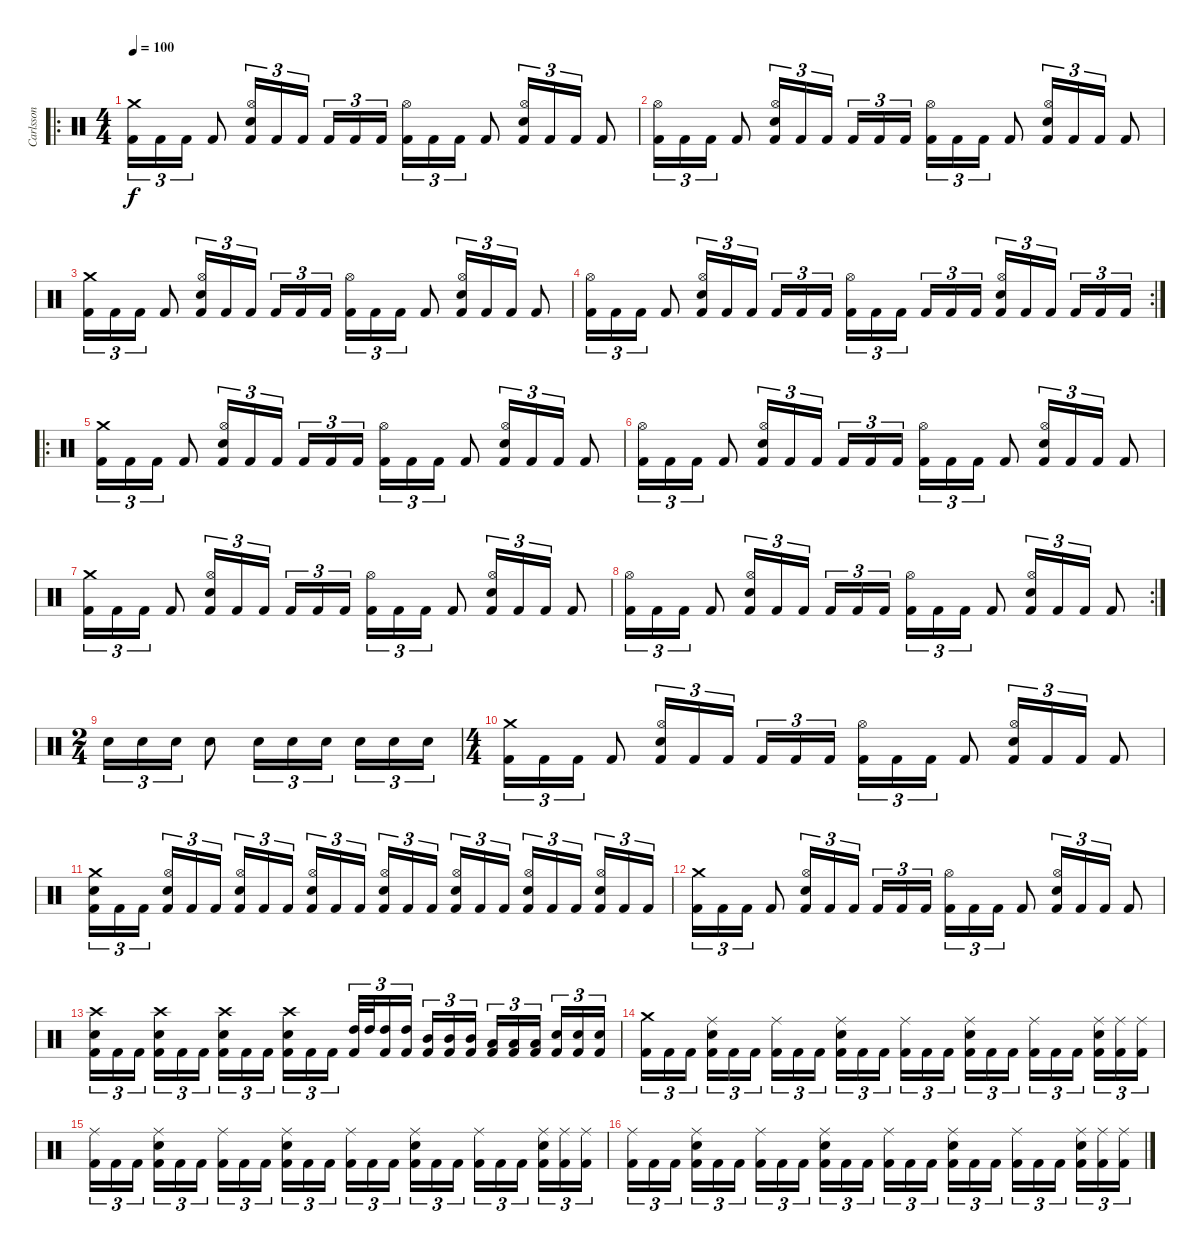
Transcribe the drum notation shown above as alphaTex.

\track ("Carlsson" "Carlsson") {instrument percussion}
\staff {score}
\articulation defaults
\ro
\ts (4 4)
\tempo 100
\clef neutral
\ks c
("Crash medium (hit)" "Kick (hit) 2").16{tu (3 2) dy f} "Kick (hit) 2".16{tu (3 2)} "Kick (hit) 2".16{tu (3 2)} "Kick (hit) 2".8 ("Hi-Hat (open)" "Electric Snare (hit)" "Kick (hit) 2").16{tu (3 2)} "Kick (hit) 2".16{tu (3 2)} "Kick (hit) 2".16{tu (3 2)} "Kick (hit) 2".16{tu (3 2)} "Kick (hit) 2".16{tu (3 2)} "Kick (hit) 2".16{tu (3 2)} ("Hi-Hat (open)" "Kick (hit) 2").16{tu (3 2)} "Kick (hit) 2".16{tu (3 2)} "Kick (hit) 2".16{tu (3 2)} "Kick (hit) 2".8 ("Hi-Hat (open)" "Electric Snare (hit)" "Kick (hit) 2").16{tu (3 2)} "Kick (hit) 2".16{tu (3 2)} "Kick (hit) 2".16{tu (3 2)} "Kick (hit) 2".8 |
("Hi-Hat (open)" "Kick (hit) 2").16{tu (3 2)} "Kick (hit) 2".16{tu (3 2)} "Kick (hit) 2".16{tu (3 2)} "Kick (hit) 2".8 ("Hi-Hat (open)" "Electric Snare (hit)" "Kick (hit) 2").16{tu (3 2)} "Kick (hit) 2".16{tu (3 2)} "Kick (hit) 2".16{tu (3 2)} "Kick (hit) 2".16{tu (3 2)} "Kick (hit) 2".16{tu (3 2)} "Kick (hit) 2".16{tu (3 2)} ("Hi-Hat (open)" "Kick (hit) 2").16{tu (3 2)} "Kick (hit) 2".16{tu (3 2)} "Kick (hit) 2".16{tu (3 2)} "Kick (hit) 2".8 ("Hi-Hat (open)" "Electric Snare (hit)" "Kick (hit) 2").16{tu (3 2)} "Kick (hit) 2".16{tu (3 2)} "Kick (hit) 2".16{tu (3 2)} "Kick (hit) 2".8 |
("Crash medium (hit)" "Kick (hit) 2").16{tu (3 2)} "Kick (hit) 2".16{tu (3 2)} "Kick (hit) 2".16{tu (3 2)} "Kick (hit) 2".8 ("Hi-Hat (open)" "Electric Snare (hit)" "Kick (hit) 2").16{tu (3 2)} "Kick (hit) 2".16{tu (3 2)} "Kick (hit) 2".16{tu (3 2)} "Kick (hit) 2".16{tu (3 2)} "Kick (hit) 2".16{tu (3 2)} "Kick (hit) 2".16{tu (3 2)} ("Hi-Hat (open)" "Kick (hit) 2").16{tu (3 2)} "Kick (hit) 2".16{tu (3 2)} "Kick (hit) 2".16{tu (3 2)} "Kick (hit) 2".8 ("Hi-Hat (open)" "Electric Snare (hit)" "Kick (hit) 2").16{tu (3 2)} "Kick (hit) 2".16{tu (3 2)} "Kick (hit) 2".16{tu (3 2)} "Kick (hit) 2".8 |
\rc 2
("Hi-Hat (open)" "Kick (hit) 2").16{tu (3 2)} "Kick (hit) 2".16{tu (3 2)} "Kick (hit) 2".16{tu (3 2)} "Kick (hit) 2".8 ("Hi-Hat (open)" "Electric Snare (hit)" "Kick (hit) 2").16{tu (3 2)} "Kick (hit) 2".16{tu (3 2)} "Kick (hit) 2".16{tu (3 2)} "Kick (hit) 2".16{tu (3 2)} "Kick (hit) 2".16{tu (3 2)} "Kick (hit) 2".16{tu (3 2)} ("Hi-Hat (open)" "Kick (hit) 2").16{tu (3 2)} "Kick (hit) 2".16{tu (3 2)} "Kick (hit) 2".16{tu (3 2)} "Kick (hit) 2".16{tu (3 2)} "Kick (hit) 2".16{tu (3 2)} "Kick (hit) 2".16{tu (3 2)} ("Hi-Hat (open)" "Electric Snare (hit)" "Kick (hit) 2").16{tu (3 2)} "Kick (hit) 2".16{tu (3 2)} "Kick (hit) 2".16{tu (3 2)} "Kick (hit) 2".16{tu (3 2)} "Kick (hit) 2".16{tu (3 2)} "Kick (hit) 2".16{tu (3 2)} |
\ro
("Crash medium (hit)" "Kick (hit) 2").16{tu (3 2)} "Kick (hit) 2".16{tu (3 2)} "Kick (hit) 2".16{tu (3 2)} "Kick (hit) 2".8 ("Hi-Hat (open)" "Electric Snare (hit)" "Kick (hit) 2").16{tu (3 2)} "Kick (hit) 2".16{tu (3 2)} "Kick (hit) 2".16{tu (3 2)} "Kick (hit) 2".16{tu (3 2)} "Kick (hit) 2".16{tu (3 2)} "Kick (hit) 2".16{tu (3 2)} ("Hi-Hat (open)" "Kick (hit) 2").16{tu (3 2)} "Kick (hit) 2".16{tu (3 2)} "Kick (hit) 2".16{tu (3 2)} "Kick (hit) 2".8 ("Hi-Hat (open)" "Electric Snare (hit)" "Kick (hit) 2").16{tu (3 2)} "Kick (hit) 2".16{tu (3 2)} "Kick (hit) 2".16{tu (3 2)} "Kick (hit) 2".8 |
("Hi-Hat (open)" "Kick (hit) 2").16{tu (3 2)} "Kick (hit) 2".16{tu (3 2)} "Kick (hit) 2".16{tu (3 2)} "Kick (hit) 2".8 ("Hi-Hat (open)" "Electric Snare (hit)" "Kick (hit) 2").16{tu (3 2)} "Kick (hit) 2".16{tu (3 2)} "Kick (hit) 2".16{tu (3 2)} "Kick (hit) 2".16{tu (3 2)} "Kick (hit) 2".16{tu (3 2)} "Kick (hit) 2".16{tu (3 2)} ("Hi-Hat (open)" "Kick (hit) 2").16{tu (3 2)} "Kick (hit) 2".16{tu (3 2)} "Kick (hit) 2".16{tu (3 2)} "Kick (hit) 2".8 ("Hi-Hat (open)" "Electric Snare (hit)" "Kick (hit) 2").16{tu (3 2)} "Kick (hit) 2".16{tu (3 2)} "Kick (hit) 2".16{tu (3 2)} "Kick (hit) 2".8 |
("Crash medium (hit)" "Kick (hit) 2").16{tu (3 2)} "Kick (hit) 2".16{tu (3 2)} "Kick (hit) 2".16{tu (3 2)} "Kick (hit) 2".8 ("Hi-Hat (open)" "Electric Snare (hit)" "Kick (hit) 2").16{tu (3 2)} "Kick (hit) 2".16{tu (3 2)} "Kick (hit) 2".16{tu (3 2)} "Kick (hit) 2".16{tu (3 2)} "Kick (hit) 2".16{tu (3 2)} "Kick (hit) 2".16{tu (3 2)} ("Hi-Hat (open)" "Kick (hit) 2").16{tu (3 2)} "Kick (hit) 2".16{tu (3 2)} "Kick (hit) 2".16{tu (3 2)} "Kick (hit) 2".8 ("Hi-Hat (open)" "Electric Snare (hit)" "Kick (hit) 2").16{tu (3 2)} "Kick (hit) 2".16{tu (3 2)} "Kick (hit) 2".16{tu (3 2)} "Kick (hit) 2".8 |
\rc 2
("Hi-Hat (open)" "Kick (hit) 2").16{tu (3 2)} "Kick (hit) 2".16{tu (3 2)} "Kick (hit) 2".16{tu (3 2)} "Kick (hit) 2".8 ("Hi-Hat (open)" "Electric Snare (hit)" "Kick (hit) 2").16{tu (3 2)} "Kick (hit) 2".16{tu (3 2)} "Kick (hit) 2".16{tu (3 2)} "Kick (hit) 2".16{tu (3 2)} "Kick (hit) 2".16{tu (3 2)} "Kick (hit) 2".16{tu (3 2)} ("Hi-Hat (open)" "Kick (hit) 2").16{tu (3 2)} "Kick (hit) 2".16{tu (3 2)} "Kick (hit) 2".16{tu (3 2)} "Kick (hit) 2".8 ("Hi-Hat (open)" "Electric Snare (hit)" "Kick (hit) 2").16{tu (3 2)} "Kick (hit) 2".16{tu (3 2)} "Kick (hit) 2".16{tu (3 2)} "Kick (hit) 2".8 |
\ts (2 4)
"Electric Snare (hit)".16{tu (3 2)} "Electric Snare (hit)".16{tu (3 2)} "Electric Snare (hit)".16{tu (3 2)} "Electric Snare (hit)".8 "Electric Snare (hit)".16{tu (3 2)} "Electric Snare (hit)".16{tu (3 2)} "Electric Snare (hit)".16{tu (3 2)} "Electric Snare (hit)".16{tu (3 2)} "Electric Snare (hit)".16{tu (3 2)} "Electric Snare (hit)".16{tu (3 2)} |
\ts (4 4)
("Crash medium (hit)" "Kick (hit) 2").16{tu (3 2)} "Kick (hit) 2".16{tu (3 2)} "Kick (hit) 2".16{tu (3 2)} "Kick (hit) 2".8 ("Hi-Hat (open)" "Electric Snare (hit)" "Kick (hit) 2").16{tu (3 2)} "Kick (hit) 2".16{tu (3 2)} "Kick (hit) 2".16{tu (3 2)} "Kick (hit) 2".16{tu (3 2)} "Kick (hit) 2".16{tu (3 2)} "Kick (hit) 2".16{tu (3 2)} ("Hi-Hat (open)" "Kick (hit) 2").16{tu (3 2)} "Kick (hit) 2".16{tu (3 2)} "Kick (hit) 2".16{tu (3 2)} "Kick (hit) 2".8 ("Hi-Hat (open)" "Electric Snare (hit)" "Kick (hit) 2").16{tu (3 2)} "Kick (hit) 2".16{tu (3 2)} "Kick (hit) 2".16{tu (3 2)} "Kick (hit) 2".8 |
("Crash medium (hit)" "Electric Snare (hit)" "Kick (hit) 2").16{tu (3 2)} "Kick (hit) 2".16{tu (3 2)} "Kick (hit) 2".16{tu (3 2)} ("Hi-Hat (open)" "Electric Snare (hit)" "Kick (hit) 2").16{tu (3 2)} "Kick (hit) 2".16{tu (3 2)} "Kick (hit) 2".16{tu (3 2)} ("Hi-Hat (open)" "Electric Snare (hit)" "Kick (hit) 2").16{tu (3 2)} "Kick (hit) 2".16{tu (3 2)} "Kick (hit) 2".16{tu (3 2)} ("Hi-Hat (open)" "Electric Snare (hit)" "Kick (hit) 2").16{tu (3 2)} "Kick (hit) 2".16{tu (3 2)} "Kick (hit) 2".16{tu (3 2)} ("Hi-Hat (open)" "Electric Snare (hit)" "Kick (hit) 2").16{tu (3 2)} "Kick (hit) 2".16{tu (3 2)} "Kick (hit) 2".16{tu (3 2)} ("Hi-Hat (open)" "Electric Snare (hit)" "Kick (hit) 2").16{tu (3 2)} "Kick (hit) 2".16{tu (3 2)} "Kick (hit) 2".16{tu (3 2)} ("Hi-Hat (open)" "Electric Snare (hit)" "Kick (hit) 2").16{tu (3 2)} "Kick (hit) 2".16{tu (3 2)} "Kick (hit) 2".16{tu (3 2)} ("Hi-Hat (open)" "Electric Snare (hit)" "Kick (hit) 2").16{tu (3 2)} "Kick (hit) 2".16{tu (3 2)} "Kick (hit) 2".16{tu (3 2)} |
("Crash medium (hit)" "Kick (hit) 2").16{tu (3 2)} "Kick (hit) 2".16{tu (3 2)} "Kick (hit) 2".16{tu (3 2)} "Kick (hit) 2".8 ("Hi-Hat (open)" "Electric Snare (hit)" "Kick (hit) 2").16{tu (3 2)} "Kick (hit) 2".16{tu (3 2)} "Kick (hit) 2".16{tu (3 2)} "Kick (hit) 2".16{tu (3 2)} "Kick (hit) 2".16{tu (3 2)} "Kick (hit) 2".16{tu (3 2)} ("Hi-Hat (open)" "Kick (hit) 2").16{tu (3 2)} "Kick (hit) 2".16{tu (3 2)} "Kick (hit) 2".16{tu (3 2)} "Kick (hit) 2".8 ("Hi-Hat (open)" "Electric Snare (hit)" "Kick (hit) 2").16{tu (3 2)} "Kick (hit) 2".16{tu (3 2)} "Kick (hit) 2".16{tu (3 2)} "Kick (hit) 2".8 |
("Crash high (hit)" "Electric Snare (hit)" "Kick (hit) 2").16{tu (3 2)} "Kick (hit) 2".16{tu (3 2)} "Kick (hit) 2".16{tu (3 2)} ("Crash high (hit)" "Electric Snare (hit)" "Kick (hit) 2").16{tu (3 2)} "Kick (hit) 2".16{tu (3 2)} "Kick (hit) 2".16{tu (3 2)} ("Crash high (hit)" "Electric Snare (hit)" "Kick (hit) 2").16{tu (3 2)} "Kick (hit) 2".16{tu (3 2)} "Kick (hit) 2".16{tu (3 2)} ("Crash high (hit)" "Electric Snare (hit)" "Kick (hit) 2").16{tu (3 2)} "Kick (hit) 2".16{tu (3 2)} "Kick (hit) 2".16{tu (3 2)} ("High Tom (hit)" "Kick (hit) 2").32{tu (3 2)} "High Tom (hit)".32{tu (3 2)} ("High Tom (hit)" "Kick (hit) 2").16{tu (3 2)} ("High Tom (hit)" "Kick (hit) 2").16{tu (3 2)} ("Mid Tom (hit)" "Kick (hit) 2").16{tu (3 2)} ("Mid Tom (hit)" "Kick (hit) 2").16{tu (3 2)} ("Mid Tom (hit)" "Kick (hit) 2").16{tu (3 2)} ("Low Tom (hit)" "Kick (hit) 2").16{tu (3 2)} ("Low Tom (hit)" "Kick (hit) 2").16{tu (3 2)} ("Low Tom (hit)" "Kick (hit) 2").16{tu (3 2)} ("Electric Snare (hit)" "Kick (hit) 2").16{tu (3 2)} ("Electric Snare (hit)" "Kick (hit) 2").16{tu (3 2)} ("Electric Snare (hit)" "Kick (hit) 2").16{tu (3 2)} |
("Crash medium (hit)" "Kick (hit) 2").16{tu (3 2)} "Kick (hit) 2".16{tu (3 2)} "Kick (hit) 2".16{tu (3 2)} ("Ride (middle)" "Electric Snare (hit)" "Kick (hit) 2").16{tu (3 2)} "Kick (hit) 2".16{tu (3 2)} "Kick (hit) 2".16{tu (3 2)} ("Ride (middle)" "Kick (hit) 2").16{tu (3 2)} "Kick (hit) 2".16{tu (3 2)} "Kick (hit) 2".16{tu (3 2)} ("Ride (middle)" "Electric Snare (hit)" "Kick (hit) 2").16{tu (3 2)} "Kick (hit) 2".16{tu (3 2)} "Kick (hit) 2".16{tu (3 2)} ("Ride (middle)" "Kick (hit) 2").16{tu (3 2)} "Kick (hit) 2".16{tu (3 2)} "Kick (hit) 2".16{tu (3 2)} ("Ride (middle)" "Electric Snare (hit)" "Kick (hit) 2").16{tu (3 2)} "Kick (hit) 2".16{tu (3 2)} "Kick (hit) 2".16{tu (3 2)} ("Ride (middle)" "Kick (hit) 2").16{tu (3 2)} "Kick (hit) 2".16{tu (3 2)} "Kick (hit) 2".16{tu (3 2)} ("Ride (middle)" "Electric Snare (hit)" "Kick (hit) 2").16{tu (3 2)} ("Ride (middle)" "Kick (hit) 2").16{tu (3 2)} ("Ride (middle)" "Kick (hit) 2").16{tu (3 2)} |
("Ride (middle)" "Kick (hit) 2").16{tu (3 2)} "Kick (hit) 2".16{tu (3 2)} "Kick (hit) 2".16{tu (3 2)} ("Ride (middle)" "Electric Snare (hit)" "Kick (hit) 2").16{tu (3 2)} "Kick (hit) 2".16{tu (3 2)} "Kick (hit) 2".16{tu (3 2)} ("Ride (middle)" "Kick (hit) 2").16{tu (3 2)} "Kick (hit) 2".16{tu (3 2)} "Kick (hit) 2".16{tu (3 2)} ("Ride (middle)" "Electric Snare (hit)" "Kick (hit) 2").16{tu (3 2)} "Kick (hit) 2".16{tu (3 2)} "Kick (hit) 2".16{tu (3 2)} ("Ride (middle)" "Kick (hit) 2").16{tu (3 2)} "Kick (hit) 2".16{tu (3 2)} "Kick (hit) 2".16{tu (3 2)} ("Ride (middle)" "Electric Snare (hit)" "Kick (hit) 2").16{tu (3 2)} "Kick (hit) 2".16{tu (3 2)} "Kick (hit) 2".16{tu (3 2)} ("Ride (middle)" "Kick (hit) 2").16{tu (3 2)} "Kick (hit) 2".16{tu (3 2)} "Kick (hit) 2".16{tu (3 2)} ("Ride (middle)" "Electric Snare (hit)" "Kick (hit) 2").16{tu (3 2)} ("Ride (middle)" "Kick (hit) 2").16{tu (3 2)} ("Ride (middle)" "Kick (hit) 2").16{tu (3 2)} |
("Ride (middle)" "Kick (hit) 2").16{tu (3 2)} "Kick (hit) 2".16{tu (3 2)} "Kick (hit) 2".16{tu (3 2)} ("Ride (middle)" "Electric Snare (hit)" "Kick (hit) 2").16{tu (3 2)} "Kick (hit) 2".16{tu (3 2)} "Kick (hit) 2".16{tu (3 2)} ("Ride (middle)" "Kick (hit) 2").16{tu (3 2)} "Kick (hit) 2".16{tu (3 2)} "Kick (hit) 2".16{tu (3 2)} ("Ride (middle)" "Electric Snare (hit)" "Kick (hit) 2").16{tu (3 2)} "Kick (hit) 2".16{tu (3 2)} "Kick (hit) 2".16{tu (3 2)} ("Ride (middle)" "Kick (hit) 2").16{tu (3 2)} "Kick (hit) 2".16{tu (3 2)} "Kick (hit) 2".16{tu (3 2)} ("Ride (middle)" "Electric Snare (hit)" "Kick (hit) 2").16{tu (3 2)} "Kick (hit) 2".16{tu (3 2)} "Kick (hit) 2".16{tu (3 2)} ("Ride (middle)" "Kick (hit) 2").16{tu (3 2)} "Kick (hit) 2".16{tu (3 2)} "Kick (hit) 2".16{tu (3 2)} ("Ride (middle)" "Electric Snare (hit)" "Kick (hit) 2").16{tu (3 2)} ("Ride (middle)" "Kick (hit) 2").16{tu (3 2)} ("Ride (middle)" "Kick (hit) 2").16{tu (3 2)}
